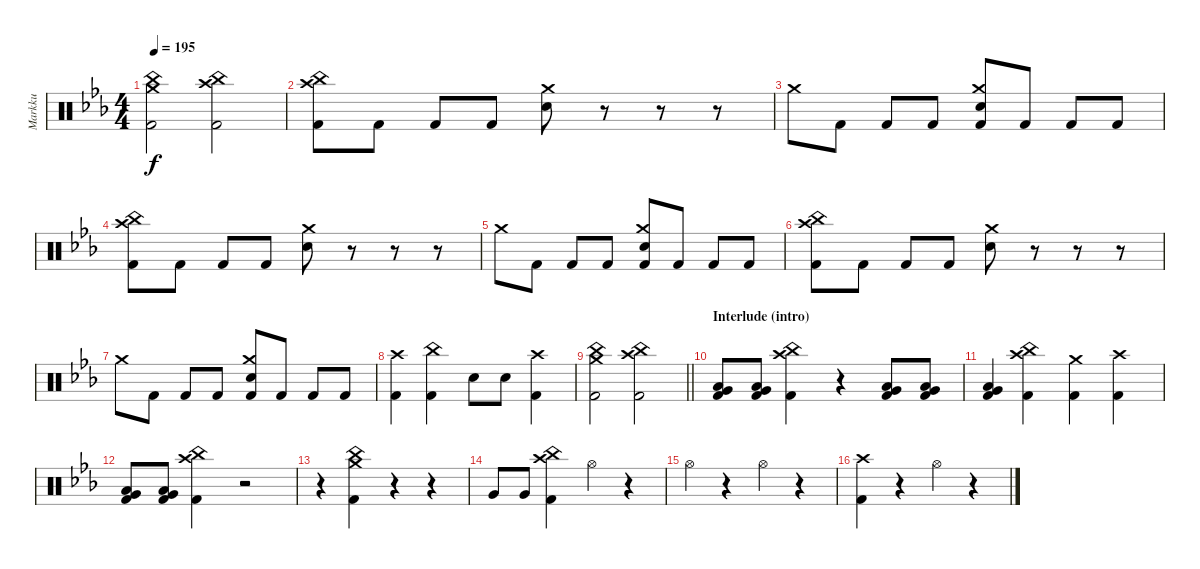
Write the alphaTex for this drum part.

\track ("Markku" "Markku") {instrument percussion}
\staff {score}
\articulation defaults
\ts (4 4)
\tempo 195
\clef neutral
\ks cminor
("China (hit)" "Kick (hit) 2" "Crash medium (hit)").2{dy f} ("China (hit)" "Kick (hit) 2" "Crash high (hit)").2 |
("Kick (hit) 2" "Crash high (hit)" "China (hit)").8 "Kick (hit) 2".8 "Kick (hit) 2".8 "Kick (hit) 2".8 ("Snare (hit) 2" "Crash medium (hit)").8 r.8 r.8 r.8 |
"Crash medium (hit)".8 "Kick (hit) 2".8 "Kick (hit) 2".8 "Kick (hit) 2".8 ("Kick (hit) 2" "Crash medium (hit)" "Snare (hit) 2").8 "Kick (hit) 2".8 "Kick (hit) 2".8 "Kick (hit) 2".8 |
("Kick (hit) 2" "Crash high (hit)" "China (hit)").8 "Kick (hit) 2".8 "Kick (hit) 2".8 "Kick (hit) 2".8 ("Snare (hit) 2" "Crash medium (hit)").8 r.8 r.8 r.8 |
"Crash medium (hit)".8 "Kick (hit) 2".8 "Kick (hit) 2".8 "Kick (hit) 2".8 ("Kick (hit) 2" "Crash medium (hit)" "Snare (hit) 2").8 "Kick (hit) 2".8 "Kick (hit) 2".8 "Kick (hit) 2".8 |
("Kick (hit) 2" "Crash high (hit)" "China (hit)").8 "Kick (hit) 2".8 "Kick (hit) 2".8 "Kick (hit) 2".8 ("Snare (hit) 2" "Crash medium (hit)").8 r.8 r.8 r.8 |
"Crash medium (hit)".8 "Kick (hit) 2".8 "Kick (hit) 2".8 "Kick (hit) 2".8 ("Kick (hit) 2" "Crash medium (hit)" "Snare (hit) 2").8 "Kick (hit) 2".8 "Kick (hit) 2".8 "Kick (hit) 2".8 |
("Kick (hit) 2" "Crash high (hit)").4 ("Kick (hit) 2" "China (hit)").4 "Snare (hit) 2".8 "Snare (hit) 2".8 ("Kick (hit) 2" "Crash high (hit)").4 |
\barLineRight lightlight
("China (hit)" "Kick (hit) 2" "Crash medium (hit)").2 ("China (hit)" "Kick (hit) 2" "Crash high (hit)").2 |
\section ("" "Interlude (intro)")
("Very Low Tom (hit)" "Kick (hit) 2" "Low Tom (hit)").8 ("Very Low Tom (hit)" "Kick (hit) 2" "Low Tom (hit)").8 ("Crash high (hit)" "China (hit)" "Kick (hit) 2").4 r.4 ("Kick (hit) 2" "Low Tom (hit)" "Very Low Tom (hit)").8 ("Kick (hit) 2" "Low Tom (hit)" "Very Low Tom (hit)").8 |
("Kick (hit) 2" "Low Tom (hit)" "Very Low Tom (hit)").4 ("Kick (hit) 2" "Crash high (hit)" "China (hit)").4 ("Kick (hit) 2" "Crash medium (hit)").4 ("Kick (hit) 2" "Crash high (hit)").4 |
("Kick (hit) 2" "Low Tom (hit)" "Very Low Tom (hit)").8 ("Kick (hit) 2" "Low Tom (hit)" "Very Low Tom (hit)").8 ("Crash high (hit)" "China (hit)" "Kick (hit) 2").4 r.2 |
r.4 ("Kick (hit) 2" "China (hit)" "Crash medium (hit)").4 r.4 r.4 |
"Very Low Tom (hit)".8 "Very Low Tom (hit)".8 ("China (hit)" "Crash high (hit)" "Kick (hit) 2").4 "Hi-Hat (open)".4 r.4 |
"Hi-Hat (open)".4 r.4 "Hi-Hat (open)".4 r.4 |
("Crash high (hit)" "Kick (hit) 2").4 r.4 "Hi-Hat (open)".4 r.4
